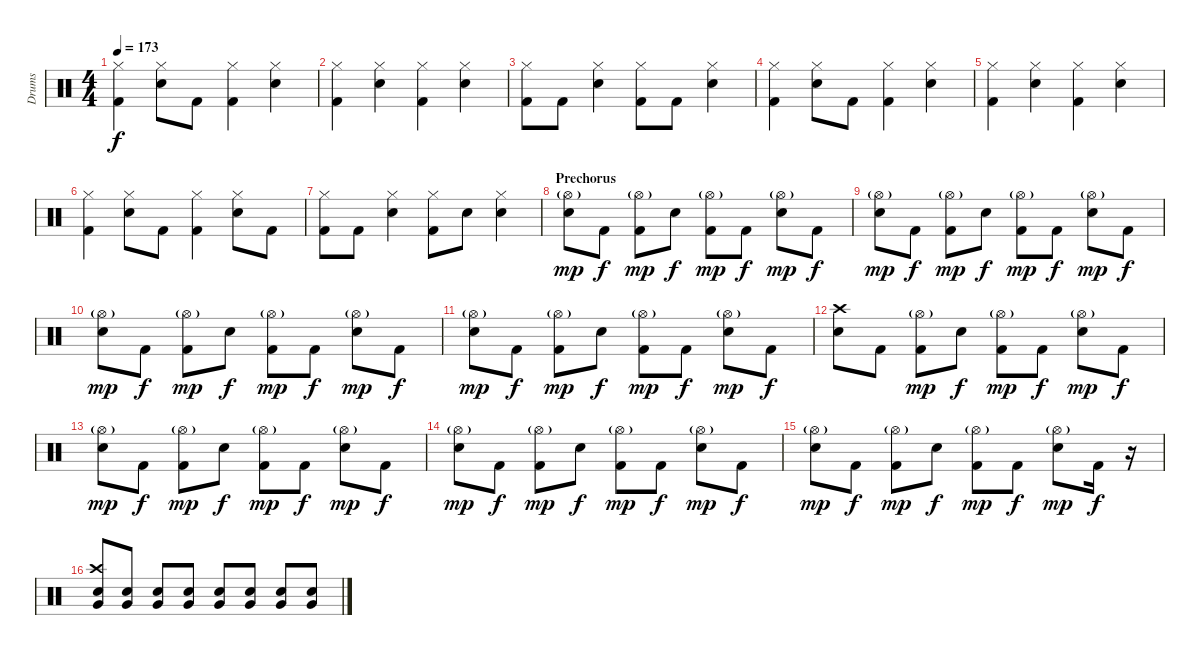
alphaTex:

\track ("Drums" "Drums") {instrument percussion}
\staff {score}
\articulation defaults
\ts (4 4)
\tempo 173
\clef neutral
\ks c
("Hi-Hat (closed)" "Kick (hit) 2").4{dy f} ("Hi-Hat (closed)" "Snare (hit) 2").8 "Kick (hit) 2".8 ("Hi-Hat (closed)" "Kick (hit) 2").4 ("Hi-Hat (closed)" "Snare (hit) 2").4 |
("Hi-Hat (closed)" "Kick (hit) 2").4 ("Hi-Hat (closed)" "Snare (hit) 2").4 ("Hi-Hat (closed)" "Kick (hit) 2").4 ("Hi-Hat (closed)" "Snare (hit) 2").4 |
("Hi-Hat (closed)" "Kick (hit) 2").8 "Kick (hit) 2".8 ("Hi-Hat (closed)" "Snare (hit) 2").4 ("Hi-Hat (closed)" "Kick (hit) 2").8 "Kick (hit) 2".8 ("Hi-Hat (closed)" "Snare (hit) 2").4 |
("Hi-Hat (closed)" "Kick (hit) 2").4 ("Hi-Hat (closed)" "Snare (hit) 2").8 "Kick (hit) 2".8 ("Hi-Hat (closed)" "Kick (hit) 2").4 ("Hi-Hat (closed)" "Snare (hit) 2").4 |
("Hi-Hat (closed)" "Kick (hit) 2").4 ("Hi-Hat (closed)" "Snare (hit) 2").4 ("Hi-Hat (closed)" "Kick (hit) 2").4 ("Hi-Hat (closed)" "Snare (hit) 2").4 |
("Hi-Hat (closed)" "Kick (hit) 2").4 ("Hi-Hat (closed)" "Snare (hit) 2").8 "Kick (hit) 2".8 ("Hi-Hat (closed)" "Kick (hit) 2").4 ("Hi-Hat (closed)" "Snare (hit) 2").8 "Kick (hit) 2".8 |
("Hi-Hat (closed)" "Kick (hit) 2").8 "Kick (hit) 2".8 ("Hi-Hat (closed)" "Snare (hit) 2").4 ("Hi-Hat (closed)" "Kick (hit) 2").8 "Snare (hit) 2".8 ("Hi-Hat (closed)" "Snare (hit) 2").4 |
\section ("" "Prechorus")
("Hi-Hat (open)"{g} "Snare (hit) 2").8{dy mp} "Kick (hit) 2".8{dy f} ("Hi-Hat (open)"{g} "Kick (hit) 2").8{dy mp} "Snare (hit) 2".8{dy f} ("Hi-Hat (open)"{g} "Kick (hit) 2").8{dy mp} "Kick (hit) 2".8{dy f} ("Hi-Hat (open)"{g} "Snare (hit) 2").8{dy mp} "Kick (hit) 2".8{dy f} |
("Hi-Hat (open)"{g} "Snare (hit) 2").8{dy mp} "Kick (hit) 2".8{dy f} ("Hi-Hat (open)"{g} "Kick (hit) 2").8{dy mp} "Snare (hit) 2".8{dy f} ("Hi-Hat (open)"{g} "Kick (hit) 2").8{dy mp} "Kick (hit) 2".8{dy f} ("Hi-Hat (open)"{g} "Snare (hit) 2").8{dy mp} "Kick (hit) 2".8{dy f} |
("Hi-Hat (open)"{g} "Snare (hit) 2").8{dy mp} "Kick (hit) 2".8{dy f} ("Hi-Hat (open)"{g} "Kick (hit) 2").8{dy mp} "Snare (hit) 2".8{dy f} ("Hi-Hat (open)"{g} "Kick (hit) 2").8{dy mp} "Kick (hit) 2".8{dy f} ("Hi-Hat (open)"{g} "Snare (hit) 2").8{dy mp} "Kick (hit) 2".8{dy f} |
("Hi-Hat (open)"{g} "Snare (hit) 2").8{dy mp} "Kick (hit) 2".8{dy f} ("Hi-Hat (open)"{g} "Kick (hit) 2").8{dy mp} "Snare (hit) 2".8{dy f} ("Hi-Hat (open)"{g} "Kick (hit) 2").8{dy mp} "Kick (hit) 2".8{dy f} ("Hi-Hat (open)"{g} "Snare (hit) 2").8{dy mp} "Kick (hit) 2".8{dy f} |
("Crash high (hit)" "Snare (hit) 2").8 "Kick (hit) 2".8 ("Hi-Hat (open)"{g} "Kick (hit) 2").8{dy mp} "Snare (hit) 2".8{dy f} ("Hi-Hat (open)"{g} "Kick (hit) 2").8{dy mp} "Kick (hit) 2".8{dy f} ("Hi-Hat (open)"{g} "Snare (hit) 2").8{dy mp} "Kick (hit) 2".8{dy f} |
("Hi-Hat (open)"{g} "Snare (hit) 2").8{dy mp} "Kick (hit) 2".8{dy f} ("Hi-Hat (open)"{g} "Kick (hit) 2").8{dy mp} "Snare (hit) 2".8{dy f} ("Hi-Hat (open)"{g} "Kick (hit) 2").8{dy mp} "Kick (hit) 2".8{dy f} ("Hi-Hat (open)"{g} "Snare (hit) 2").8{dy mp} "Kick (hit) 2".8{dy f} |
("Hi-Hat (open)"{g} "Snare (hit) 2").8{dy mp} "Kick (hit) 2".8{dy f} ("Hi-Hat (open)"{g} "Kick (hit) 2").8{dy mp} "Snare (hit) 2".8{dy f} ("Hi-Hat (open)"{g} "Kick (hit) 2").8{dy mp} "Kick (hit) 2".8{dy f} ("Hi-Hat (open)"{g} "Snare (hit) 2").8{dy mp} "Kick (hit) 2".8{dy f} |
("Hi-Hat (open)"{g} "Snare (hit) 2").8{dy mp} "Kick (hit) 2".8{dy f} ("Hi-Hat (open)"{g} "Kick (hit) 2").8{dy mp} "Snare (hit) 2".8{dy f} ("Hi-Hat (open)"{g} "Kick (hit) 2").8{dy mp} "Kick (hit) 2".8{dy f} ("Hi-Hat (open)"{g} "Snare (hit) 2").8{dy mp} "Kick (hit) 2".16{dy f} r.16{volume 4} |
("Crash high (hit)" "Very Low Tom (hit)" "Snare (hit) 2").8{volume 10} ("Very Low Tom (hit)" "Snare (hit) 2").8 ("Very Low Tom (hit)" "Snare (hit) 2").8 ("Very Low Tom (hit)" "Snare (hit) 2").8 ("Very Low Tom (hit)" "Snare (hit) 2").8 ("Very Low Tom (hit)" "Snare (hit) 2").8 ("Very Low Tom (hit)" "Snare (hit) 2").8 ("Very Low Tom (hit)" "Snare (hit) 2").8
